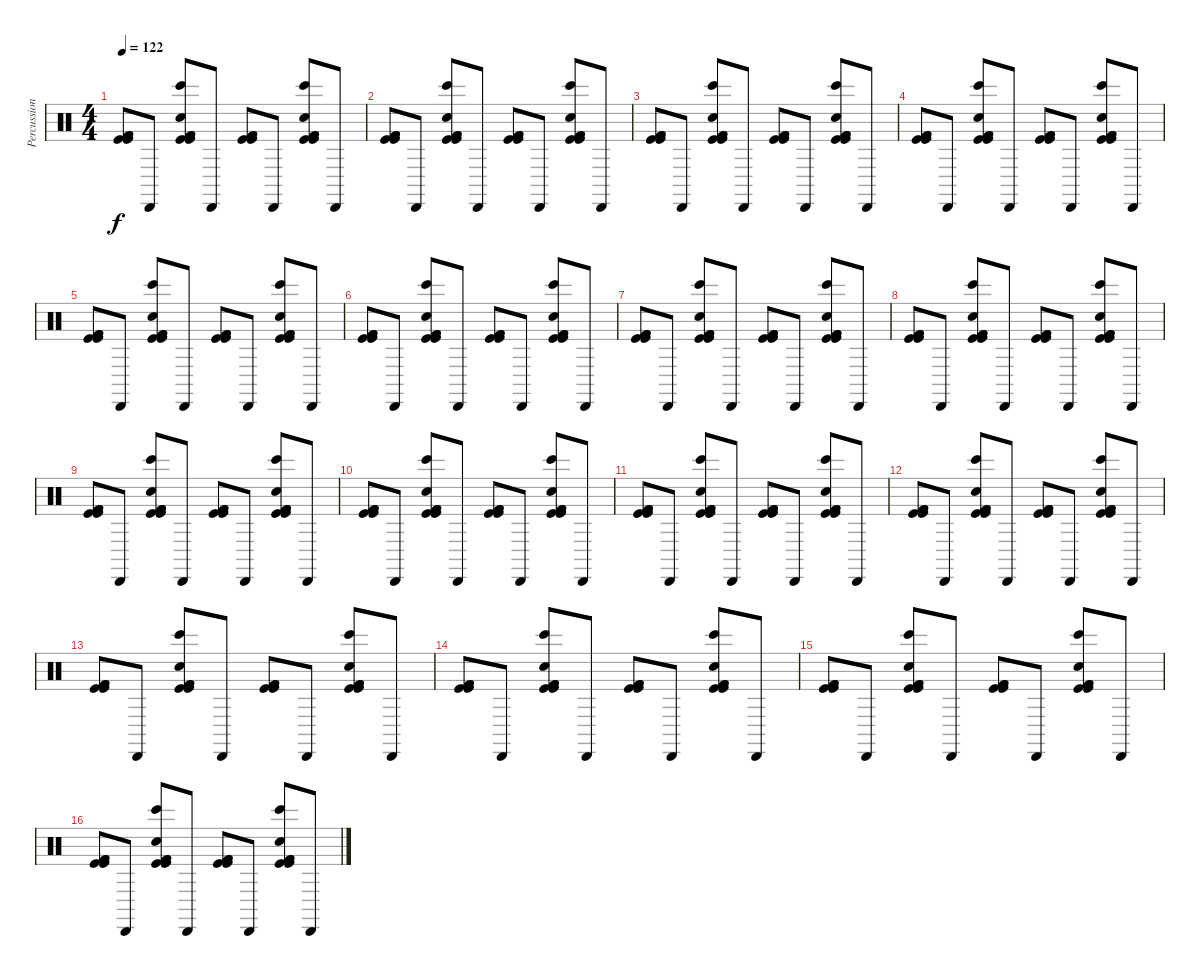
\track ("Percussion" "Percussion") {instrument percussion}
\staff {score}
\articulation defaults
\ts (4 4)
\tempo 122
\clef neutral
\ks c
("Kick (hit)" "Kick (hit) 2" "Kick (hit) 2" "Kick (hit)").8{dy f} "Cabasa (hit)".8 ("Hand Clap (hit)" "Bongo High (hit)" "Kick (hit)" "Kick (hit)" "Kick (hit) 2" "Kick (hit) 2").8 "Cabasa (hit)".8 ("Kick (hit)" "Kick (hit)" "Kick (hit) 2" "Kick (hit) 2").8 "Cabasa (hit)".8 ("Hand Clap (hit)" "Bongo High (hit)" "Kick (hit) 2" "Kick (hit) 2" "Kick (hit)" "Kick (hit)").8 "Cabasa (hit)".8 |
("Kick (hit)" "Kick (hit) 2" "Kick (hit) 2" "Kick (hit)").8 "Cabasa (hit)".8 ("Hand Clap (hit)" "Bongo High (hit)" "Kick (hit)" "Kick (hit)" "Kick (hit) 2" "Kick (hit) 2").8 "Cabasa (hit)".8 ("Kick (hit)" "Kick (hit)" "Kick (hit) 2" "Kick (hit) 2").8 "Cabasa (hit)".8 ("Hand Clap (hit)" "Bongo High (hit)" "Kick (hit) 2" "Kick (hit) 2" "Kick (hit)" "Kick (hit)").8 "Cabasa (hit)".8 |
("Kick (hit)" "Kick (hit) 2" "Kick (hit) 2" "Kick (hit)").8 "Cabasa (hit)".8 ("Hand Clap (hit)" "Bongo High (hit)" "Kick (hit)" "Kick (hit)" "Kick (hit) 2" "Kick (hit) 2").8 "Cabasa (hit)".8 ("Kick (hit)" "Kick (hit)" "Kick (hit) 2" "Kick (hit) 2").8 "Cabasa (hit)".8 ("Hand Clap (hit)" "Bongo High (hit)" "Kick (hit) 2" "Kick (hit) 2" "Kick (hit)" "Kick (hit)").8 "Cabasa (hit)".8 |
("Kick (hit)" "Kick (hit) 2" "Kick (hit) 2" "Kick (hit)").8 "Cabasa (hit)".8 ("Hand Clap (hit)" "Bongo High (hit)" "Kick (hit)" "Kick (hit)" "Kick (hit) 2" "Kick (hit) 2").8 "Cabasa (hit)".8 ("Kick (hit)" "Kick (hit)" "Kick (hit) 2" "Kick (hit) 2").8 "Cabasa (hit)".8 ("Hand Clap (hit)" "Bongo High (hit)" "Kick (hit) 2" "Kick (hit) 2" "Kick (hit)" "Kick (hit)").8 "Cabasa (hit)".8 |
("Kick (hit)" "Kick (hit) 2" "Kick (hit) 2" "Kick (hit)").8 "Cabasa (hit)".8 ("Hand Clap (hit)" "Bongo High (hit)" "Kick (hit)" "Kick (hit)" "Kick (hit) 2" "Kick (hit) 2").8 "Cabasa (hit)".8 ("Kick (hit)" "Kick (hit)" "Kick (hit) 2" "Kick (hit) 2").8 "Cabasa (hit)".8 ("Hand Clap (hit)" "Bongo High (hit)" "Kick (hit) 2" "Kick (hit) 2" "Kick (hit)" "Kick (hit)").8 "Cabasa (hit)".8 |
("Kick (hit)" "Kick (hit) 2" "Kick (hit) 2" "Kick (hit)").8 "Cabasa (hit)".8 ("Hand Clap (hit)" "Bongo High (hit)" "Kick (hit)" "Kick (hit)" "Kick (hit) 2" "Kick (hit) 2").8 "Cabasa (hit)".8 ("Kick (hit)" "Kick (hit)" "Kick (hit) 2" "Kick (hit) 2").8 "Cabasa (hit)".8 ("Hand Clap (hit)" "Bongo High (hit)" "Kick (hit) 2" "Kick (hit) 2" "Kick (hit)" "Kick (hit)").8 "Cabasa (hit)".8 |
("Kick (hit)" "Kick (hit) 2" "Kick (hit) 2" "Kick (hit)").8 "Cabasa (hit)".8 ("Hand Clap (hit)" "Bongo High (hit)" "Kick (hit)" "Kick (hit)" "Kick (hit) 2" "Kick (hit) 2").8 "Cabasa (hit)".8 ("Kick (hit)" "Kick (hit)" "Kick (hit) 2" "Kick (hit) 2").8 "Cabasa (hit)".8 ("Hand Clap (hit)" "Bongo High (hit)" "Kick (hit) 2" "Kick (hit) 2" "Kick (hit)" "Kick (hit)").8 "Cabasa (hit)".8 |
("Kick (hit)" "Kick (hit) 2" "Kick (hit) 2" "Kick (hit)").8 "Cabasa (hit)".8 ("Hand Clap (hit)" "Bongo High (hit)" "Kick (hit)" "Kick (hit)" "Kick (hit) 2" "Kick (hit) 2").8 "Cabasa (hit)".8 ("Kick (hit)" "Kick (hit)" "Kick (hit) 2" "Kick (hit) 2").8 "Cabasa (hit)".8 ("Hand Clap (hit)" "Bongo High (hit)" "Kick (hit) 2" "Kick (hit) 2" "Kick (hit)" "Kick (hit)").8 "Cabasa (hit)".8 |
("Kick (hit)" "Kick (hit) 2" "Kick (hit) 2" "Kick (hit)").8 "Cabasa (hit)".8 ("Hand Clap (hit)" "Bongo High (hit)" "Kick (hit)" "Kick (hit)" "Kick (hit) 2" "Kick (hit) 2").8 "Cabasa (hit)".8 ("Kick (hit)" "Kick (hit)" "Kick (hit) 2" "Kick (hit) 2").8 "Cabasa (hit)".8 ("Hand Clap (hit)" "Bongo High (hit)" "Kick (hit) 2" "Kick (hit) 2" "Kick (hit)" "Kick (hit)").8 "Cabasa (hit)".8 |
("Kick (hit)" "Kick (hit) 2" "Kick (hit) 2" "Kick (hit)").8 "Cabasa (hit)".8 ("Hand Clap (hit)" "Bongo High (hit)" "Kick (hit)" "Kick (hit)" "Kick (hit) 2" "Kick (hit) 2").8 "Cabasa (hit)".8 ("Kick (hit)" "Kick (hit)" "Kick (hit) 2" "Kick (hit) 2").8 "Cabasa (hit)".8 ("Hand Clap (hit)" "Bongo High (hit)" "Kick (hit) 2" "Kick (hit) 2" "Kick (hit)" "Kick (hit)").8 "Cabasa (hit)".8 |
("Kick (hit)" "Kick (hit) 2" "Kick (hit) 2" "Kick (hit)").8 "Cabasa (hit)".8 ("Hand Clap (hit)" "Bongo High (hit)" "Kick (hit)" "Kick (hit)" "Kick (hit) 2" "Kick (hit) 2").8 "Cabasa (hit)".8 ("Kick (hit)" "Kick (hit)" "Kick (hit) 2" "Kick (hit) 2").8 "Cabasa (hit)".8 ("Hand Clap (hit)" "Bongo High (hit)" "Kick (hit) 2" "Kick (hit) 2" "Kick (hit)" "Kick (hit)").8 "Cabasa (hit)".8 |
("Kick (hit)" "Kick (hit) 2" "Kick (hit) 2" "Kick (hit)").8 "Cabasa (hit)".8 ("Hand Clap (hit)" "Bongo High (hit)" "Kick (hit)" "Kick (hit)" "Kick (hit) 2" "Kick (hit) 2").8 "Cabasa (hit)".8 ("Kick (hit)" "Kick (hit)" "Kick (hit) 2" "Kick (hit) 2").8 "Cabasa (hit)".8 ("Hand Clap (hit)" "Bongo High (hit)" "Kick (hit) 2" "Kick (hit) 2" "Kick (hit)" "Kick (hit)").8 "Cabasa (hit)".8 |
("Kick (hit)" "Kick (hit) 2" "Kick (hit) 2" "Kick (hit)").8{volume 16} "Cabasa (hit)".8{volume 16} ("Hand Clap (hit)" "Bongo High (hit)" "Kick (hit)" "Kick (hit)" "Kick (hit) 2" "Kick (hit) 2").8{volume 16} "Cabasa (hit)".8{volume 16} ("Kick (hit)" "Kick (hit)" "Kick (hit) 2" "Kick (hit) 2").8{volume 15} "Cabasa (hit)".8{volume 15} ("Hand Clap (hit)" "Bongo High (hit)" "Kick (hit) 2" "Kick (hit) 2" "Kick (hit)" "Kick (hit)").8{volume 15} "Cabasa (hit)".8{volume 15} |
("Kick (hit)" "Kick (hit) 2" "Kick (hit) 2" "Kick (hit)").8{volume 15} "Cabasa (hit)".8{volume 14} ("Hand Clap (hit)" "Bongo High (hit)" "Kick (hit)" "Kick (hit)" "Kick (hit) 2" "Kick (hit) 2").8{volume 14} "Cabasa (hit)".8{volume 14} ("Kick (hit)" "Kick (hit)" "Kick (hit) 2" "Kick (hit) 2").8{volume 14} "Cabasa (hit)".8{volume 14} ("Hand Clap (hit)" "Bongo High (hit)" "Kick (hit) 2" "Kick (hit) 2" "Kick (hit)" "Kick (hit)").8{volume 14} "Cabasa (hit)".8{volume 14} |
("Kick (hit)" "Kick (hit) 2" "Kick (hit) 2" "Kick (hit)").8{volume 13} "Cabasa (hit)".8{volume 13} ("Hand Clap (hit)" "Bongo High (hit)" "Kick (hit)" "Kick (hit)" "Kick (hit) 2" "Kick (hit) 2").8{volume 13} "Cabasa (hit)".8{volume 13} ("Kick (hit)" "Kick (hit)" "Kick (hit) 2" "Kick (hit) 2").8{volume 13} "Cabasa (hit)".8{volume 12} ("Hand Clap (hit)" "Bongo High (hit)" "Kick (hit) 2" "Kick (hit) 2" "Kick (hit)" "Kick (hit)").8{volume 12} "Cabasa (hit)".8{volume 12} |
("Kick (hit)" "Kick (hit) 2" "Kick (hit) 2" "Kick (hit)").8{volume 12} "Cabasa (hit)".8{volume 12} ("Hand Clap (hit)" "Bongo High (hit)" "Kick (hit)" "Kick (hit)" "Kick (hit) 2" "Kick (hit) 2").8{volume 12} "Cabasa (hit)".8{volume 12} ("Kick (hit)" "Kick (hit)" "Kick (hit) 2" "Kick (hit) 2").8{volume 11} "Cabasa (hit)".8{volume 11} ("Hand Clap (hit)" "Bongo High (hit)" "Kick (hit) 2" "Kick (hit) 2" "Kick (hit)" "Kick (hit)").8{volume 11} "Cabasa (hit)".8{volume 11}
